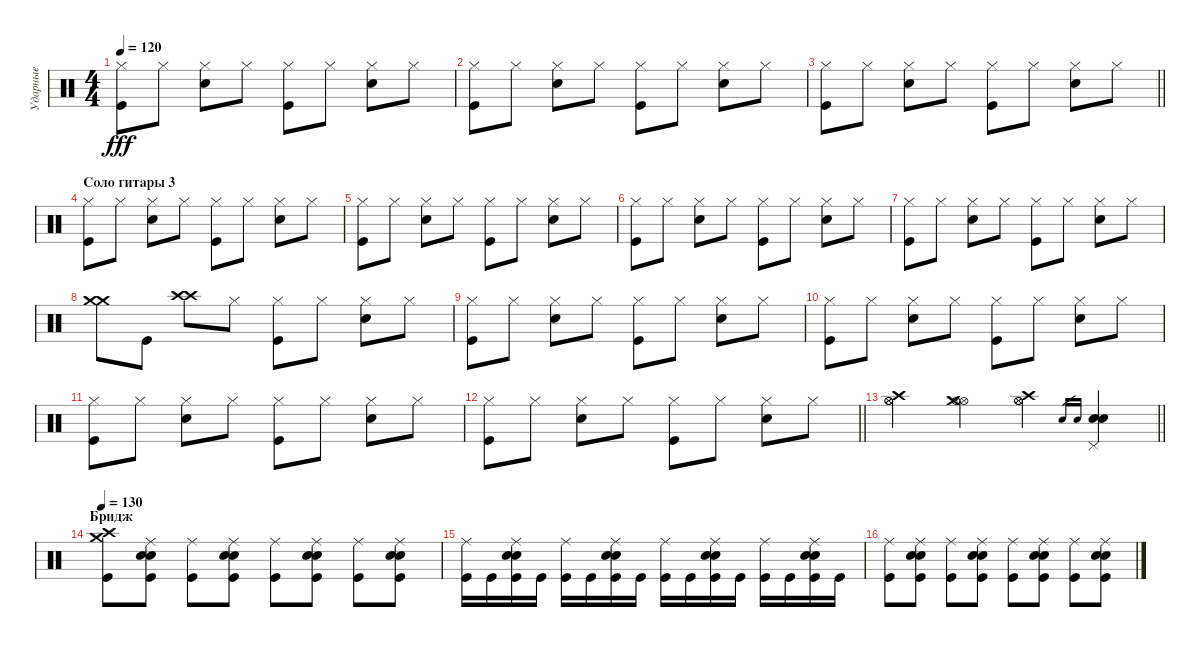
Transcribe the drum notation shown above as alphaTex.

\track ("Ударные" "Ударные") {instrument percussion}
\staff {score}
\articulation defaults
\ts (4 4)
\tempo 120
\clef neutral
\ks c
("Hi-Hat (closed)" "Kick (hit)").8{dy fff} "Hi-Hat (closed)".8 ("Hi-Hat (closed)" "Electric Snare (hit)").8 "Hi-Hat (closed)".8 ("Hi-Hat (closed)" "Kick (hit)").8 "Hi-Hat (closed)".8 ("Hi-Hat (closed)" "Electric Snare (hit)").8 "Hi-Hat (closed)".8 |
("Hi-Hat (closed)" "Kick (hit)").8 "Hi-Hat (closed)".8 ("Hi-Hat (closed)" "Electric Snare (hit)").8 "Hi-Hat (closed)".8 ("Hi-Hat (closed)" "Kick (hit)").8 "Hi-Hat (closed)".8 ("Hi-Hat (closed)" "Electric Snare (hit)").8 "Hi-Hat (closed)".8 |
\barLineRight lightlight
("Hi-Hat (closed)" "Kick (hit)").8 "Hi-Hat (closed)".8 ("Hi-Hat (closed)" "Electric Snare (hit)").8 "Hi-Hat (closed)".8 ("Hi-Hat (closed)" "Kick (hit)").8 "Hi-Hat (closed)".8 ("Hi-Hat (closed)" "Electric Snare (hit)").8 "Hi-Hat (closed)".8 |
\section ("" "Соло гитары 3")
("Hi-Hat (closed)" "Kick (hit)").8 "Hi-Hat (closed)".8 ("Hi-Hat (closed)" "Electric Snare (hit)").8 "Hi-Hat (closed)".8 ("Hi-Hat (closed)" "Kick (hit)").8 "Hi-Hat (closed)".8 ("Hi-Hat (closed)" "Electric Snare (hit)").8 "Hi-Hat (closed)".8 |
("Hi-Hat (closed)" "Kick (hit)").8 "Hi-Hat (closed)".8 ("Hi-Hat (closed)" "Electric Snare (hit)").8 "Hi-Hat (closed)".8 ("Hi-Hat (closed)" "Kick (hit)").8 "Hi-Hat (closed)".8 ("Hi-Hat (closed)" "Electric Snare (hit)").8 "Hi-Hat (closed)".8 |
("Hi-Hat (closed)" "Kick (hit)").8 "Hi-Hat (closed)".8 ("Hi-Hat (closed)" "Electric Snare (hit)").8 "Hi-Hat (closed)".8 ("Hi-Hat (closed)" "Kick (hit)").8 "Hi-Hat (closed)".8 ("Hi-Hat (closed)" "Electric Snare (hit)").8 "Hi-Hat (closed)".8 |
("Hi-Hat (closed)" "Kick (hit)").8 "Hi-Hat (closed)".8 ("Hi-Hat (closed)" "Electric Snare (hit)").8 "Hi-Hat (closed)".8 ("Hi-Hat (closed)" "Kick (hit)").8 "Hi-Hat (closed)".8 ("Hi-Hat (closed)" "Electric Snare (hit)").8 "Hi-Hat (closed)".8 |
("Crash medium (hit)" "Crash medium (hit)").8 "Kick (hit)".8 ("Crash high (hit)" "Crash high (hit)").8 "Hi-Hat (closed)".8 ("Hi-Hat (closed)" "Kick (hit)").8 "Hi-Hat (closed)".8 ("Hi-Hat (closed)" "Electric Snare (hit)").8 "Hi-Hat (closed)".8 |
("Hi-Hat (closed)" "Kick (hit)").8 "Hi-Hat (closed)".8 ("Hi-Hat (closed)" "Electric Snare (hit)").8 "Hi-Hat (closed)".8 ("Hi-Hat (closed)" "Kick (hit)").8 "Hi-Hat (closed)".8 ("Hi-Hat (closed)" "Electric Snare (hit)").8 "Hi-Hat (closed)".8 |
("Hi-Hat (closed)" "Kick (hit)").8 "Hi-Hat (closed)".8 ("Hi-Hat (closed)" "Electric Snare (hit)").8 "Hi-Hat (closed)".8 ("Hi-Hat (closed)" "Kick (hit)").8 "Hi-Hat (closed)".8 ("Hi-Hat (closed)" "Electric Snare (hit)").8 "Hi-Hat (closed)".8 |
("Hi-Hat (closed)" "Kick (hit)").8 "Hi-Hat (closed)".8 ("Hi-Hat (closed)" "Electric Snare (hit)").8 "Hi-Hat (closed)".8 ("Hi-Hat (closed)" "Kick (hit)").8 "Hi-Hat (closed)".8 ("Hi-Hat (closed)" "Electric Snare (hit)").8 "Hi-Hat (closed)".8 |
\barLineRight lightlight
("Hi-Hat (closed)" "Kick (hit)").8 "Hi-Hat (closed)".8 ("Hi-Hat (closed)" "Electric Snare (hit)").8 "Hi-Hat (closed)".8 ("Hi-Hat (closed)" "Kick (hit)").8 "Hi-Hat (closed)".8 ("Hi-Hat (closed)" "Electric Snare (hit)").8 "Hi-Hat (closed)".8 |
\barLineRight lightlight
("Hi-Hat (open)" "Hi-Hat (open)" "Crash high (hit)").4 ("Hi-Hat (open)" "Hi-Hat (open)" "Crash medium (hit)").4 ("Hi-Hat (open)" "Hi-Hat (open)" "Crash high (hit)").4 "Electric Snare (hit)".16{gr} "Snare (hit) 2".16{gr} ("Electric Snare (hit)" "Snare (hit) 2" "Pedal Hi-Hat (hit)").4 |
\section ("" "Бридж")
\tempo 130
("Kick (hit)" "Crash medium (hit)" "Crash high (hit)").8 ("Kick (hit)" "Snare (hit) 2" "Snare (hit) 2" "Ride (middle)").8 ("Kick (hit)" "Ride (middle)").8 ("Kick (hit)" "Snare (hit) 2" "Snare (hit) 2" "Ride (middle)").8 ("Kick (hit)" "Ride (middle)").8 ("Kick (hit)" "Snare (hit) 2" "Snare (hit) 2" "Ride (middle)").8 ("Kick (hit)" "Ride (middle)").8 ("Kick (hit)" "Snare (hit) 2" "Snare (hit) 2" "Ride (middle)").8 |
("Kick (hit)" "Ride (middle)").16 "Kick (hit)".16 ("Kick (hit)" "Snare (hit) 2" "Snare (hit) 2" "Ride (middle)").16 "Kick (hit)".16 ("Kick (hit)" "Ride (middle)").16 "Kick (hit)".16 ("Kick (hit)" "Snare (hit) 2" "Snare (hit) 2" "Ride (middle)").16 "Kick (hit)".16 ("Kick (hit)" "Ride (middle)").16 "Kick (hit)".16 ("Kick (hit)" "Snare (hit) 2" "Snare (hit) 2" "Ride (middle)").16 "Kick (hit)".16 ("Kick (hit)" "Ride (middle)").16 "Kick (hit)".16 ("Kick (hit)" "Snare (hit) 2" "Snare (hit) 2" "Ride (middle)").16 "Kick (hit)".16 |
("Kick (hit)" "Ride (middle)").8 ("Kick (hit)" "Snare (hit) 2" "Snare (hit) 2" "Ride (middle)").8 ("Kick (hit)" "Ride (middle)").8 ("Kick (hit)" "Snare (hit) 2" "Snare (hit) 2" "Ride (middle)").8 ("Kick (hit)" "Ride (middle)").8 ("Kick (hit)" "Snare (hit) 2" "Snare (hit) 2" "Ride (middle)").8 ("Kick (hit)" "Ride (middle)").8 ("Kick (hit)" "Snare (hit) 2" "Snare (hit) 2" "Ride (middle)").8
